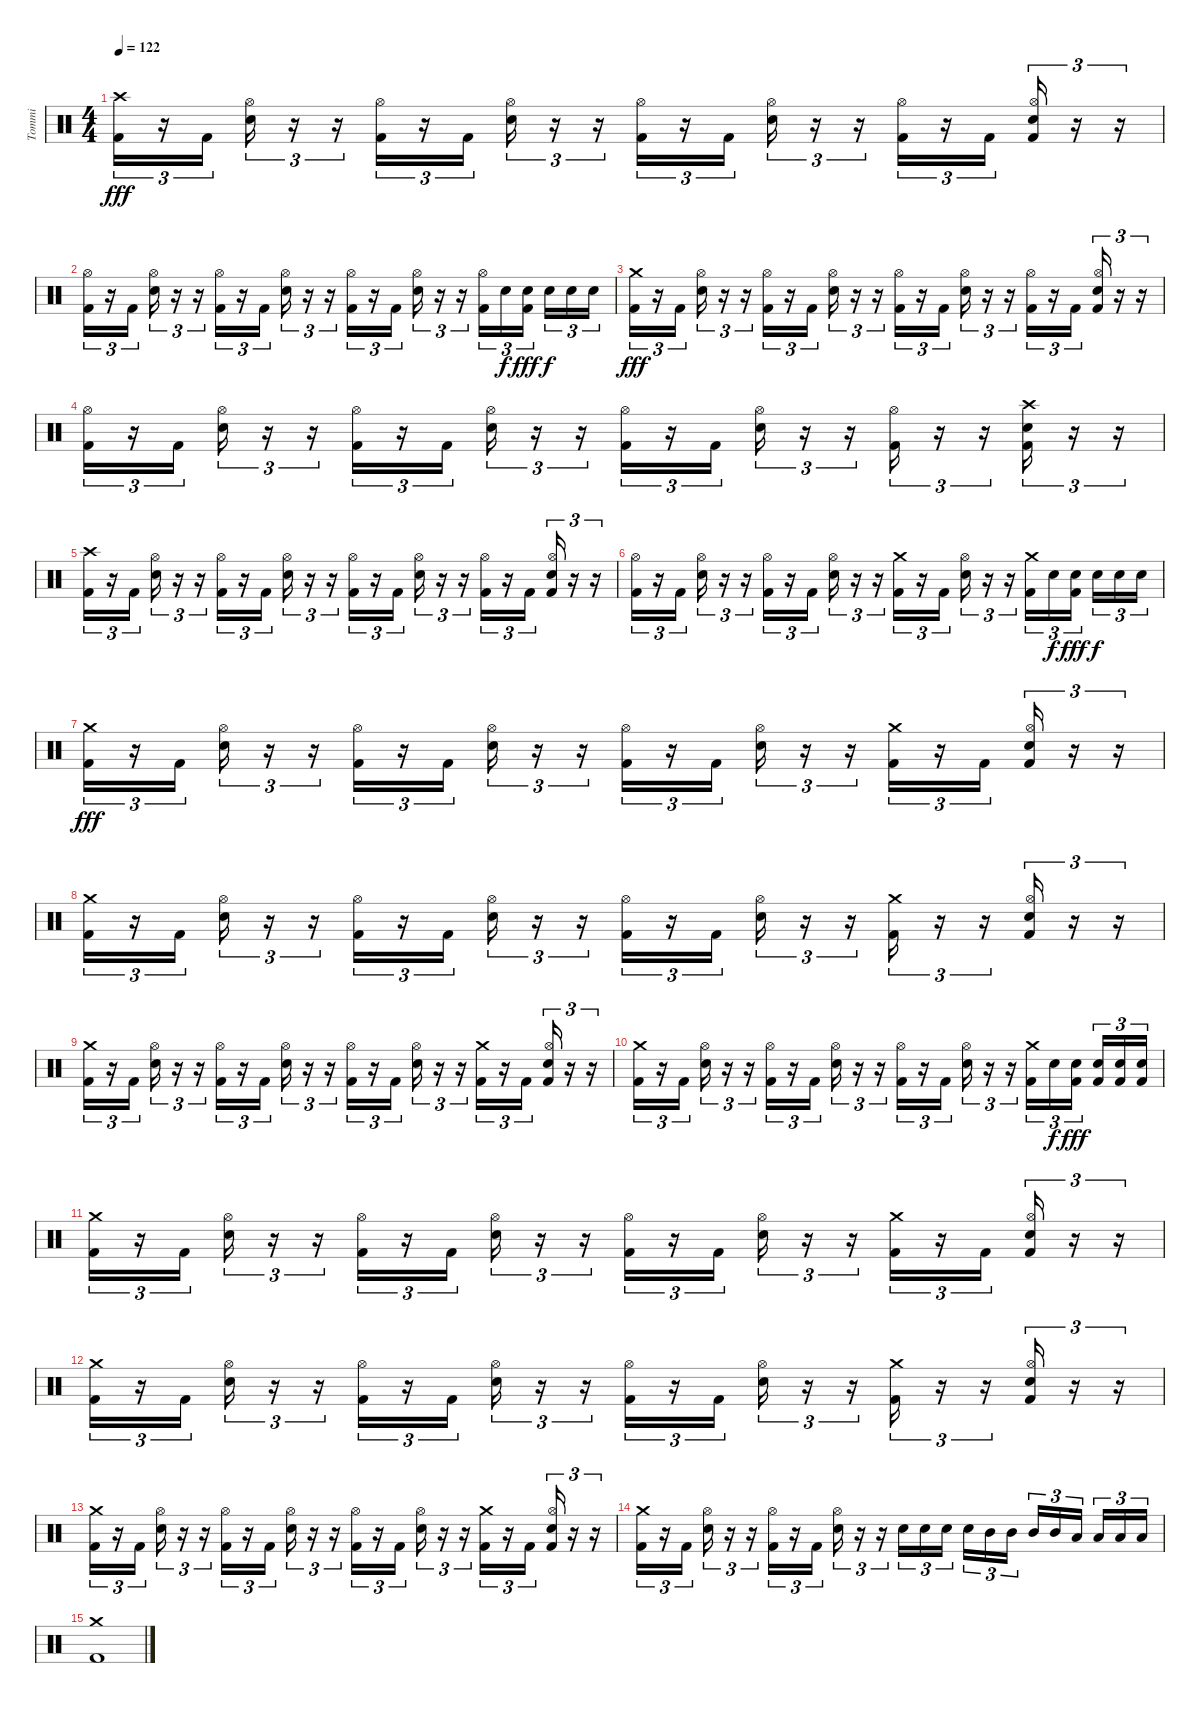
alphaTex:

\track ("Tommi" "Tommi") {instrument percussion}
\staff {score}
\articulation defaults
\ts (4 4)
\tempo 122
\clef neutral
\ks c
("Crash high (hit)" "Kick (hit) 2").16{tu (3 2) dy fff} r.16{tu (3 2)} "Kick (hit) 2".16{tu (3 2)} ("Hi-Hat (open)" "Snare (hit) 2").16{tu (3 2)} r.16{tu (3 2)} r.16{tu (3 2)} ("Hi-Hat (open)" "Kick (hit) 2").16{tu (3 2)} r.16{tu (3 2)} "Kick (hit) 2".16{tu (3 2)} ("Hi-Hat (open)" "Snare (hit) 2").16{tu (3 2)} r.16{tu (3 2)} r.16{tu (3 2)} ("Hi-Hat (open)" "Kick (hit) 2").16{tu (3 2)} r.16{tu (3 2)} "Kick (hit) 2".16{tu (3 2)} ("Hi-Hat (open)" "Snare (hit) 2").16{tu (3 2)} r.16{tu (3 2)} r.16{tu (3 2)} ("Hi-Hat (open)" "Kick (hit) 2").16{tu (3 2)} r.16{tu (3 2)} "Kick (hit) 2".16{tu (3 2)} ("Hi-Hat (open)" "Snare (hit) 2" "Kick (hit) 2").16{tu (3 2)} r.16{tu (3 2)} r.16{tu (3 2)} |
("Hi-Hat (open)" "Kick (hit) 2").16{tu (3 2)} r.16{tu (3 2)} "Kick (hit) 2".16{tu (3 2)} ("Hi-Hat (open)" "Snare (hit) 2").16{tu (3 2)} r.16{tu (3 2)} r.16{tu (3 2)} ("Hi-Hat (open)" "Kick (hit) 2").16{tu (3 2)} r.16{tu (3 2)} "Kick (hit) 2".16{tu (3 2)} ("Hi-Hat (open)" "Snare (hit) 2").16{tu (3 2)} r.16{tu (3 2)} r.16{tu (3 2)} ("Hi-Hat (open)" "Kick (hit) 2").16{tu (3 2)} r.16{tu (3 2)} "Kick (hit) 2".16{tu (3 2)} ("Hi-Hat (open)" "Snare (hit) 2").16{tu (3 2)} r.16{tu (3 2)} r.16{tu (3 2)} ("Hi-Hat (open)" "Kick (hit) 2").16{tu (3 2)} "Snare (hit) 2".16{tu (3 2) dy f} ("Snare (hit) 2" "Kick (hit) 2").16{tu (3 2) dy fff beam splitsecondary} "Snare (hit) 2".16{tu (3 2) dy f} "Snare (hit) 2".16{tu (3 2)} "Snare (hit) 2".16{tu (3 2)} |
("Crash medium (hit)" "Kick (hit) 2").16{tu (3 2) dy fff} r.16{tu (3 2)} "Kick (hit) 2".16{tu (3 2)} ("Hi-Hat (open)" "Snare (hit) 2").16{tu (3 2)} r.16{tu (3 2)} r.16{tu (3 2)} ("Hi-Hat (open)" "Kick (hit) 2").16{tu (3 2)} r.16{tu (3 2)} "Kick (hit) 2".16{tu (3 2)} ("Hi-Hat (open)" "Snare (hit) 2").16{tu (3 2)} r.16{tu (3 2)} r.16{tu (3 2)} ("Hi-Hat (open)" "Kick (hit) 2").16{tu (3 2)} r.16{tu (3 2)} "Kick (hit) 2".16{tu (3 2)} ("Hi-Hat (open)" "Snare (hit) 2").16{tu (3 2)} r.16{tu (3 2)} r.16{tu (3 2)} ("Hi-Hat (open)" "Kick (hit) 2").16{tu (3 2)} r.16{tu (3 2)} "Kick (hit) 2".16{tu (3 2)} ("Hi-Hat (open)" "Snare (hit) 2" "Kick (hit) 2").16{tu (3 2)} r.16{tu (3 2)} r.16{tu (3 2)} |
("Hi-Hat (open)" "Kick (hit) 2").16{tu (3 2)} r.16{tu (3 2)} "Kick (hit) 2".16{tu (3 2)} ("Hi-Hat (open)" "Snare (hit) 2").16{tu (3 2)} r.16{tu (3 2)} r.16{tu (3 2)} ("Hi-Hat (open)" "Kick (hit) 2").16{tu (3 2)} r.16{tu (3 2)} "Kick (hit) 2".16{tu (3 2)} ("Hi-Hat (open)" "Snare (hit) 2").16{tu (3 2)} r.16{tu (3 2)} r.16{tu (3 2)} ("Hi-Hat (open)" "Kick (hit) 2").16{tu (3 2)} r.16{tu (3 2)} "Kick (hit) 2".16{tu (3 2)} ("Hi-Hat (open)" "Snare (hit) 2").16{tu (3 2)} r.16{tu (3 2)} r.16{tu (3 2)} ("Hi-Hat (open)" "Kick (hit) 2").16{tu (3 2)} r.16{tu (3 2)} r.16{tu (3 2)} ("Crash high (hit)" "Snare (hit) 2" "Kick (hit) 2").16{tu (3 2)} r.16{tu (3 2)} r.16{tu (3 2)} |
("Crash high (hit)" "Kick (hit) 2").16{tu (3 2)} r.16{tu (3 2)} "Kick (hit) 2".16{tu (3 2)} ("Hi-Hat (open)" "Snare (hit) 2").16{tu (3 2)} r.16{tu (3 2)} r.16{tu (3 2)} ("Hi-Hat (open)" "Kick (hit) 2").16{tu (3 2)} r.16{tu (3 2)} "Kick (hit) 2".16{tu (3 2)} ("Hi-Hat (open)" "Snare (hit) 2").16{tu (3 2)} r.16{tu (3 2)} r.16{tu (3 2)} ("Hi-Hat (open)" "Kick (hit) 2").16{tu (3 2)} r.16{tu (3 2)} "Kick (hit) 2".16{tu (3 2)} ("Hi-Hat (open)" "Snare (hit) 2").16{tu (3 2)} r.16{tu (3 2)} r.16{tu (3 2)} ("Hi-Hat (open)" "Kick (hit) 2").16{tu (3 2)} r.16{tu (3 2)} "Kick (hit) 2".16{tu (3 2)} ("Hi-Hat (open)" "Snare (hit) 2" "Kick (hit) 2").16{tu (3 2)} r.16{tu (3 2)} r.16{tu (3 2)} |
("Hi-Hat (open)" "Kick (hit) 2").16{tu (3 2)} r.16{tu (3 2)} "Kick (hit) 2".16{tu (3 2)} ("Hi-Hat (open)" "Snare (hit) 2").16{tu (3 2)} r.16{tu (3 2)} r.16{tu (3 2)} ("Hi-Hat (open)" "Kick (hit) 2").16{tu (3 2)} r.16{tu (3 2)} "Kick (hit) 2".16{tu (3 2)} ("Hi-Hat (open)" "Snare (hit) 2").16{tu (3 2)} r.16{tu (3 2)} r.16{tu (3 2)} ("Crash medium (hit)" "Kick (hit) 2").16{tu (3 2)} r.16{tu (3 2)} "Kick (hit) 2".16{tu (3 2)} ("Hi-Hat (open)" "Snare (hit) 2").16{tu (3 2)} r.16{tu (3 2)} r.16{tu (3 2)} ("Crash medium (hit)" "Kick (hit) 2").16{tu (3 2)} "Snare (hit) 2".16{tu (3 2) dy f} ("Snare (hit) 2" "Kick (hit) 2").16{tu (3 2) dy fff beam splitsecondary} "Snare (hit) 2".16{tu (3 2) dy f} "Snare (hit) 2".16{tu (3 2)} "Snare (hit) 2".16{tu (3 2)} |
("Crash medium (hit)" "Kick (hit) 2").16{tu (3 2) dy fff} r.16{tu (3 2)} "Kick (hit) 2".16{tu (3 2)} ("Hi-Hat (open)" "Snare (hit) 2").16{tu (3 2)} r.16{tu (3 2)} r.16{tu (3 2)} ("Hi-Hat (open)" "Kick (hit) 2").16{tu (3 2)} r.16{tu (3 2)} "Kick (hit) 2".16{tu (3 2)} ("Hi-Hat (open)" "Snare (hit) 2").16{tu (3 2)} r.16{tu (3 2)} r.16{tu (3 2)} ("Hi-Hat (open)" "Kick (hit) 2").16{tu (3 2)} r.16{tu (3 2)} "Kick (hit) 2".16{tu (3 2)} ("Hi-Hat (open)" "Snare (hit) 2").16{tu (3 2)} r.16{tu (3 2)} r.16{tu (3 2)} ("Crash medium (hit)" "Kick (hit) 2").16{tu (3 2)} r.16{tu (3 2)} "Kick (hit) 2".16{tu (3 2)} ("Hi-Hat (open)" "Snare (hit) 2" "Kick (hit) 2").16{tu (3 2)} r.16{tu (3 2)} r.16{tu (3 2)} |
("Crash medium (hit)" "Kick (hit) 2").16{tu (3 2)} r.16{tu (3 2)} "Kick (hit) 2".16{tu (3 2)} ("Hi-Hat (open)" "Snare (hit) 2").16{tu (3 2)} r.16{tu (3 2)} r.16{tu (3 2)} ("Hi-Hat (open)" "Kick (hit) 2").16{tu (3 2)} r.16{tu (3 2)} "Kick (hit) 2".16{tu (3 2)} ("Hi-Hat (open)" "Snare (hit) 2").16{tu (3 2)} r.16{tu (3 2)} r.16{tu (3 2)} ("Hi-Hat (open)" "Kick (hit) 2").16{tu (3 2)} r.16{tu (3 2)} "Kick (hit) 2".16{tu (3 2)} ("Hi-Hat (open)" "Snare (hit) 2").16{tu (3 2)} r.16{tu (3 2)} r.16{tu (3 2)} ("Crash medium (hit)" "Kick (hit) 2").16{tu (3 2)} r.16{tu (3 2)} r.16{tu (3 2)} ("Hi-Hat (open)" "Snare (hit) 2" "Kick (hit) 2").16{tu (3 2)} r.16{tu (3 2)} r.16{tu (3 2)} |
("Crash medium (hit)" "Kick (hit) 2").16{tu (3 2)} r.16{tu (3 2)} "Kick (hit) 2".16{tu (3 2)} ("Hi-Hat (open)" "Snare (hit) 2").16{tu (3 2)} r.16{tu (3 2)} r.16{tu (3 2)} ("Hi-Hat (open)" "Kick (hit) 2").16{tu (3 2)} r.16{tu (3 2)} "Kick (hit) 2".16{tu (3 2)} ("Hi-Hat (open)" "Snare (hit) 2").16{tu (3 2)} r.16{tu (3 2)} r.16{tu (3 2)} ("Hi-Hat (open)" "Kick (hit) 2").16{tu (3 2)} r.16{tu (3 2)} "Kick (hit) 2".16{tu (3 2)} ("Hi-Hat (open)" "Snare (hit) 2").16{tu (3 2)} r.16{tu (3 2)} r.16{tu (3 2)} ("Crash medium (hit)" "Kick (hit) 2").16{tu (3 2)} r.16{tu (3 2)} "Kick (hit) 2".16{tu (3 2)} ("Hi-Hat (open)" "Snare (hit) 2" "Kick (hit) 2").16{tu (3 2)} r.16{tu (3 2)} r.16{tu (3 2)} |
("Crash medium (hit)" "Kick (hit) 2").16{tu (3 2)} r.16{tu (3 2)} "Kick (hit) 2".16{tu (3 2)} ("Hi-Hat (open)" "Snare (hit) 2").16{tu (3 2)} r.16{tu (3 2)} r.16{tu (3 2)} ("Hi-Hat (open)" "Kick (hit) 2").16{tu (3 2)} r.16{tu (3 2)} "Kick (hit) 2".16{tu (3 2)} ("Hi-Hat (open)" "Snare (hit) 2").16{tu (3 2)} r.16{tu (3 2)} r.16{tu (3 2)} ("Hi-Hat (open)" "Kick (hit) 2").16{tu (3 2)} r.16{tu (3 2)} "Kick (hit) 2".16{tu (3 2)} ("Hi-Hat (open)" "Snare (hit) 2").16{tu (3 2)} r.16{tu (3 2)} r.16{tu (3 2)} ("Crash medium (hit)" "Kick (hit) 2").16{tu (3 2)} "Snare (hit) 2".16{tu (3 2) dy f} ("Snare (hit) 2" "Kick (hit) 2").16{tu (3 2) dy fff beam splitsecondary} ("Snare (hit) 2" "Kick (hit) 2").16{tu (3 2)} ("Snare (hit) 2" "Kick (hit) 2").16{tu (3 2)} ("Snare (hit) 2" "Kick (hit) 2").16{tu (3 2)} |
("Crash medium (hit)" "Kick (hit) 2").16{tu (3 2)} r.16{tu (3 2)} "Kick (hit) 2".16{tu (3 2)} ("Hi-Hat (open)" "Snare (hit) 2").16{tu (3 2)} r.16{tu (3 2)} r.16{tu (3 2)} ("Hi-Hat (open)" "Kick (hit) 2").16{tu (3 2)} r.16{tu (3 2)} "Kick (hit) 2".16{tu (3 2)} ("Hi-Hat (open)" "Snare (hit) 2").16{tu (3 2)} r.16{tu (3 2)} r.16{tu (3 2)} ("Hi-Hat (open)" "Kick (hit) 2").16{tu (3 2)} r.16{tu (3 2)} "Kick (hit) 2".16{tu (3 2)} ("Hi-Hat (open)" "Snare (hit) 2").16{tu (3 2)} r.16{tu (3 2)} r.16{tu (3 2)} ("Crash medium (hit)" "Kick (hit) 2").16{tu (3 2)} r.16{tu (3 2)} "Kick (hit) 2".16{tu (3 2)} ("Hi-Hat (open)" "Snare (hit) 2" "Kick (hit) 2").16{tu (3 2)} r.16{tu (3 2)} r.16{tu (3 2)} |
("Crash medium (hit)" "Kick (hit) 2").16{tu (3 2)} r.16{tu (3 2)} "Kick (hit) 2".16{tu (3 2)} ("Hi-Hat (open)" "Snare (hit) 2").16{tu (3 2)} r.16{tu (3 2)} r.16{tu (3 2)} ("Hi-Hat (open)" "Kick (hit) 2").16{tu (3 2)} r.16{tu (3 2)} "Kick (hit) 2".16{tu (3 2)} ("Hi-Hat (open)" "Snare (hit) 2").16{tu (3 2)} r.16{tu (3 2)} r.16{tu (3 2)} ("Hi-Hat (open)" "Kick (hit) 2").16{tu (3 2)} r.16{tu (3 2)} "Kick (hit) 2".16{tu (3 2)} ("Hi-Hat (open)" "Snare (hit) 2").16{tu (3 2)} r.16{tu (3 2)} r.16{tu (3 2)} ("Crash medium (hit)" "Kick (hit) 2").16{tu (3 2)} r.16{tu (3 2)} r.16{tu (3 2)} ("Hi-Hat (open)" "Snare (hit) 2" "Kick (hit) 2").16{tu (3 2)} r.16{tu (3 2)} r.16{tu (3 2)} |
("Crash medium (hit)" "Kick (hit) 2").16{tu (3 2)} r.16{tu (3 2)} "Kick (hit) 2".16{tu (3 2)} ("Hi-Hat (open)" "Snare (hit) 2").16{tu (3 2)} r.16{tu (3 2)} r.16{tu (3 2)} ("Hi-Hat (open)" "Kick (hit) 2").16{tu (3 2)} r.16{tu (3 2)} "Kick (hit) 2".16{tu (3 2)} ("Hi-Hat (open)" "Snare (hit) 2").16{tu (3 2)} r.16{tu (3 2)} r.16{tu (3 2)} ("Hi-Hat (open)" "Kick (hit) 2").16{tu (3 2)} r.16{tu (3 2)} "Kick (hit) 2".16{tu (3 2)} ("Hi-Hat (open)" "Snare (hit) 2").16{tu (3 2)} r.16{tu (3 2)} r.16{tu (3 2)} ("Crash medium (hit)" "Kick (hit) 2").16{tu (3 2)} r.16{tu (3 2)} "Kick (hit) 2".16{tu (3 2)} ("Hi-Hat (open)" "Snare (hit) 2" "Kick (hit) 2").16{tu (3 2)} r.16{tu (3 2)} r.16{tu (3 2)} |
("Crash medium (hit)" "Kick (hit) 2").16{tu (3 2)} r.16{tu (3 2)} "Kick (hit) 2".16{tu (3 2)} ("Hi-Hat (open)" "Snare (hit) 2").16{tu (3 2)} r.16{tu (3 2)} r.16{tu (3 2)} ("Hi-Hat (open)" "Kick (hit) 2").16{tu (3 2)} r.16{tu (3 2)} "Kick (hit) 2".16{tu (3 2)} ("Hi-Hat (open)" "Snare (hit) 2").16{tu (3 2)} r.16{tu (3 2)} r.16{tu (3 2)} "Snare (hit) 2".16{tu (3 2)} "Snare (hit) 2".16{tu (3 2)} "Snare (hit) 2".16{tu (3 2) beam splitsecondary} "Snare (hit) 2".16{tu (3 2)} "Mid Tom (hit)".16{tu (3 2)} "Mid Tom (hit)".16{tu (3 2)} "Mid Tom (hit)".16{tu (3 2)} "Mid Tom (hit)".16{tu (3 2)} "Low Tom (hit)".16{tu (3 2) beam splitsecondary} "Low Tom (hit)".16{tu (3 2)} "Low Tom (hit)".16{tu (3 2)} "Low Tom (hit)".16{tu (3 2)} |
("Crash medium (hit)" "Kick (hit) 2").1
